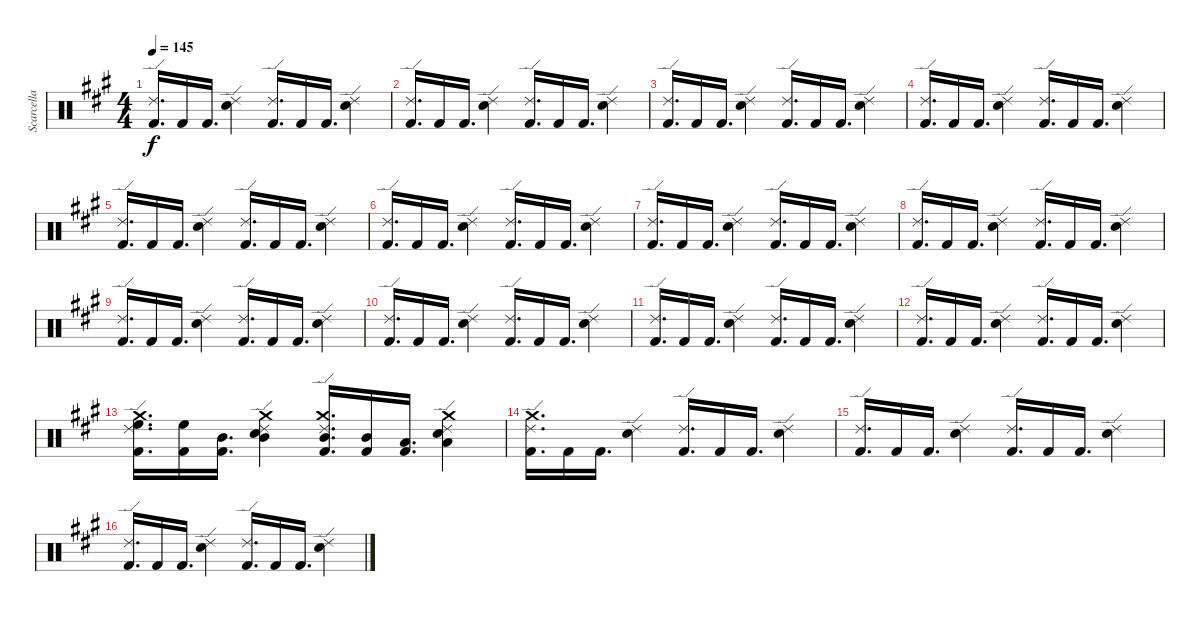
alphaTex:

\track ("Scarcella" "Scarcella") {instrument percussion}
\staff {score}
\articulation defaults
\ts (4 4)
\tempo 145
\clef neutral
\ks f#minor
("Ride (edge) 2" "Kick (hit) 2").16{d dy f} "Kick (hit) 2".16 "Kick (hit) 2".16{d} ("Ride (edge) 2" "Snare (hit) 2").4 ("Ride (edge) 2" "Kick (hit) 2").16{d} "Kick (hit) 2".16 "Kick (hit) 2".16{d} ("Ride (edge) 2" "Snare (hit) 2").4 |
("Ride (edge) 2" "Kick (hit) 2").16{d} "Kick (hit) 2".16 "Kick (hit) 2".16{d} ("Ride (edge) 2" "Snare (hit) 2").4 ("Ride (edge) 2" "Kick (hit) 2").16{d} "Kick (hit) 2".16 "Kick (hit) 2".16{d} ("Ride (edge) 2" "Snare (hit) 2").4 |
("Ride (edge) 2" "Kick (hit) 2").16{d} "Kick (hit) 2".16 "Kick (hit) 2".16{d} ("Ride (edge) 2" "Snare (hit) 2").4 ("Ride (edge) 2" "Kick (hit) 2").16{d} "Kick (hit) 2".16 "Kick (hit) 2".16{d} ("Ride (edge) 2" "Snare (hit) 2").4 |
("Ride (edge) 2" "Kick (hit) 2").16{d} "Kick (hit) 2".16 "Kick (hit) 2".16{d} ("Ride (edge) 2" "Snare (hit) 2").4 ("Ride (edge) 2" "Kick (hit) 2").16{d} "Kick (hit) 2".16 "Kick (hit) 2".16{d} ("Ride (edge) 2" "Snare (hit) 2").4 |
("Ride (edge) 2" "Kick (hit) 2").16{d} "Kick (hit) 2".16 "Kick (hit) 2".16{d} ("Ride (edge) 2" "Snare (hit) 2").4 ("Ride (edge) 2" "Kick (hit) 2").16{d} "Kick (hit) 2".16 "Kick (hit) 2".16{d} ("Ride (edge) 2" "Snare (hit) 2").4 |
("Ride (edge) 2" "Kick (hit) 2").16{d} "Kick (hit) 2".16 "Kick (hit) 2".16{d} ("Ride (edge) 2" "Snare (hit) 2").4 ("Ride (edge) 2" "Kick (hit) 2").16{d} "Kick (hit) 2".16 "Kick (hit) 2".16{d} ("Ride (edge) 2" "Snare (hit) 2").4 |
("Ride (edge) 2" "Kick (hit) 2").16{d} "Kick (hit) 2".16 "Kick (hit) 2".16{d} ("Ride (edge) 2" "Snare (hit) 2").4 ("Ride (edge) 2" "Kick (hit) 2").16{d} "Kick (hit) 2".16 "Kick (hit) 2".16{d} ("Ride (edge) 2" "Snare (hit) 2").4 |
("Ride (edge) 2" "Kick (hit) 2").16{d} "Kick (hit) 2".16 "Kick (hit) 2".16{d} ("Ride (edge) 2" "Snare (hit) 2").4 ("Ride (edge) 2" "Kick (hit) 2").16{d} "Kick (hit) 2".16 "Kick (hit) 2".16{d} ("Ride (edge) 2" "Snare (hit) 2").4 |
("Ride (edge) 2" "Kick (hit) 2").16{d} "Kick (hit) 2".16 "Kick (hit) 2".16{d} ("Ride (edge) 2" "Snare (hit) 2").4 ("Ride (edge) 2" "Kick (hit) 2").16{d} "Kick (hit) 2".16 "Kick (hit) 2".16{d} ("Ride (edge) 2" "Snare (hit) 2").4 |
("Ride (edge) 2" "Kick (hit) 2").16{d} "Kick (hit) 2".16 "Kick (hit) 2".16{d} ("Ride (edge) 2" "Snare (hit) 2").4 ("Ride (edge) 2" "Kick (hit) 2").16{d} "Kick (hit) 2".16 "Kick (hit) 2".16{d} ("Ride (edge) 2" "Snare (hit) 2").4 |
("Ride (edge) 2" "Kick (hit) 2").16{d} "Kick (hit) 2".16 "Kick (hit) 2".16{d} ("Ride (edge) 2" "Snare (hit) 2").4 ("Ride (edge) 2" "Kick (hit) 2").16{d} "Kick (hit) 2".16 "Kick (hit) 2".16{d} ("Ride (edge) 2" "Snare (hit) 2").4 |
("Ride (edge) 2" "Kick (hit) 2").16{d} "Kick (hit) 2".16 "Kick (hit) 2".16{d} ("Ride (edge) 2" "Snare (hit) 2").4 ("Ride (edge) 2" "Kick (hit) 2").16{d} "Kick (hit) 2".16 "Kick (hit) 2".16{d} ("Ride (edge) 2" "Snare (hit) 2").4 |
("Crash medium (hit)" "Ride (edge) 2" "Kick (hit) 2" "High Floor Tom (hit)").16{d} ("Kick (hit) 2" "High Floor Tom (hit)").16 ("Kick (hit) 2" "Mid Tom (hit)").16{d} ("Ride (edge) 2" "Snare (hit) 2" "Crash medium (hit)" "Mid Tom (hit)").4 ("Ride (edge) 2" "Kick (hit) 2" "Crash medium (hit)" "Mid Tom (hit)").16{d} ("Kick (hit) 2" "Mid Tom (hit)").16 ("Kick (hit) 2" "Low Tom (hit)").16{d} ("Ride (edge) 2" "Snare (hit) 2" "Crash medium (hit)" "Low Tom (hit)").4 |
("Crash medium (hit)" "Ride (edge) 2" "Kick (hit) 2").16{d} "Kick (hit) 2".16 "Kick (hit) 2".16{d} ("Ride (edge) 2" "Snare (hit) 2").4 ("Ride (edge) 2" "Kick (hit) 2").16{d} "Kick (hit) 2".16 "Kick (hit) 2".16{d} ("Ride (edge) 2" "Snare (hit) 2").4 |
("Ride (edge) 2" "Kick (hit) 2").16{d} "Kick (hit) 2".16 "Kick (hit) 2".16{d} ("Ride (edge) 2" "Snare (hit) 2").4 ("Ride (edge) 2" "Kick (hit) 2").16{d} "Kick (hit) 2".16 "Kick (hit) 2".16{d} ("Ride (edge) 2" "Snare (hit) 2").4 |
("Ride (edge) 2" "Kick (hit) 2").16{d} "Kick (hit) 2".16 "Kick (hit) 2".16{d} ("Ride (edge) 2" "Snare (hit) 2").4 ("Ride (edge) 2" "Kick (hit) 2").16{d} "Kick (hit) 2".16 "Kick (hit) 2".16{d} ("Ride (edge) 2" "Snare (hit) 2").4
